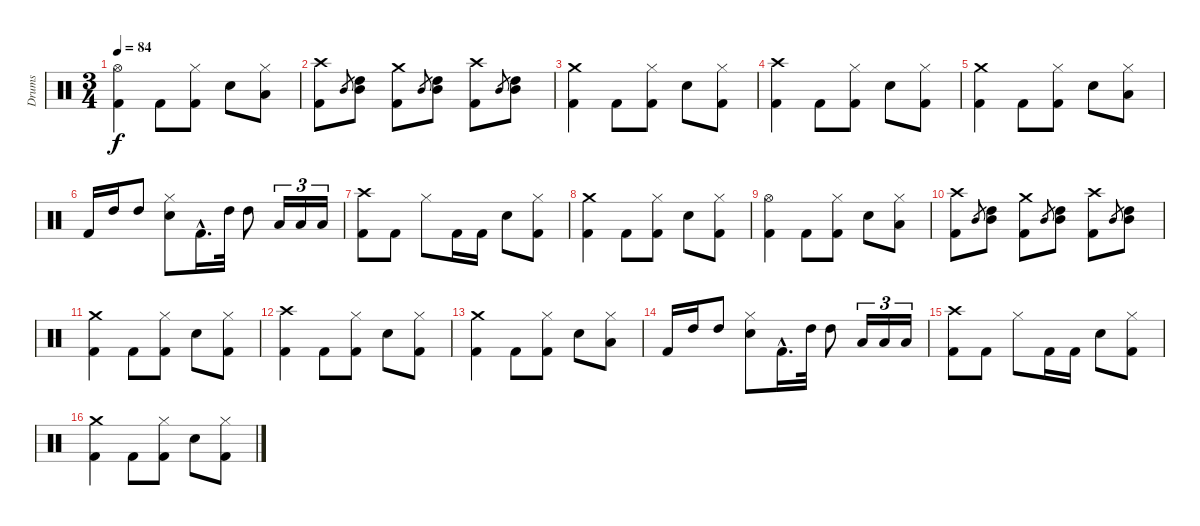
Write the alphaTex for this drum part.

\track ("Drums" "Drums") {instrument percussion}
\staff {score}
\articulation defaults
\ts (3 4)
\tempo 84
\clef neutral
\ks c
("Kick (hit) 2" "Hi-Hat (open)").4{dy f} "Kick (hit) 2".8 ("Kick (hit) 2" "Hi-Hat (closed)").8 "Snare (hit) 2".8 ("Hi-Hat (closed)" "Low Tom (hit)").8 |
("Kick (hit) 2" "Crash high (hit)").8 "Mid Tom (hit)".8{gr} ("Mid Tom (hit)" "High Tom (hit)").8 ("Kick (hit) 2" "Crash medium (hit)").8 "Mid Tom (hit)".8{gr} ("Mid Tom (hit)" "High Tom (hit)").8 ("Kick (hit) 2" "Crash high (hit)").8 "Mid Tom (hit)".8{gr} ("Mid Tom (hit)" "High Tom (hit)").8 |
("Kick (hit) 2" "Crash medium (hit)").4 "Kick (hit) 2".8 ("Kick (hit) 2" "Hi-Hat (closed)").8 "Snare (hit) 2".8 ("Kick (hit) 2" "Hi-Hat (closed)").8 |
("Kick (hit) 2" "Crash high (hit)").4 "Kick (hit) 2".8 ("Kick (hit) 2" "Hi-Hat (closed)").8 "Snare (hit) 2".8 ("Kick (hit) 2" "Hi-Hat (closed)").8 |
("Kick (hit) 2" "Crash medium (hit)").4 "Kick (hit) 2".8 ("Kick (hit) 2" "Hi-Hat (closed)").8 "Snare (hit) 2".8 ("Hi-Hat (closed)" "Low Tom (hit)").8 |
"Kick (hit) 2".16 "High Tom (hit)".16 "High Tom (hit)".8 ("Snare (hit) 2" "Hi-Hat (closed)").8 "Kick (hit) 2"{hac}.16{d} "High Tom (hit)".32 "High Tom (hit)".8 "Low Tom (hit)".16{tu (3 2)} "Low Tom (hit)".16{tu (3 2)} "Low Tom (hit)".16{tu (3 2)} |
("Kick (hit) 2" "Crash high (hit)").8 "Kick (hit) 2".8 "Hi-Hat (closed)".8 "Kick (hit) 2".16 "Kick (hit) 2".16 "Snare (hit) 2".8 ("Kick (hit) 2" "Hi-Hat (closed)").8 |
("Kick (hit) 2" "Crash medium (hit)").4 "Kick (hit) 2".8 ("Kick (hit) 2" "Hi-Hat (closed)").8 "Snare (hit) 2".8 ("Kick (hit) 2" "Hi-Hat (closed)").8 |
("Kick (hit) 2" "Hi-Hat (open)").4 "Kick (hit) 2".8 ("Kick (hit) 2" "Hi-Hat (closed)").8 "Snare (hit) 2".8 ("Hi-Hat (closed)" "Low Tom (hit)").8 |
("Kick (hit) 2" "Crash high (hit)").8 "Mid Tom (hit)".8{gr} ("Mid Tom (hit)" "High Tom (hit)").8 ("Kick (hit) 2" "Crash medium (hit)").8 "Mid Tom (hit)".8{gr} ("Mid Tom (hit)" "High Tom (hit)").8 ("Kick (hit) 2" "Crash high (hit)").8 "Mid Tom (hit)".8{gr} ("Mid Tom (hit)" "High Tom (hit)").8 |
("Kick (hit) 2" "Crash medium (hit)").4 "Kick (hit) 2".8 ("Kick (hit) 2" "Hi-Hat (closed)").8 "Snare (hit) 2".8 ("Kick (hit) 2" "Hi-Hat (closed)").8 |
("Kick (hit) 2" "Crash high (hit)").4 "Kick (hit) 2".8 ("Kick (hit) 2" "Hi-Hat (closed)").8 "Snare (hit) 2".8 ("Kick (hit) 2" "Hi-Hat (closed)").8 |
("Kick (hit) 2" "Crash medium (hit)").4 "Kick (hit) 2".8 ("Kick (hit) 2" "Hi-Hat (closed)").8 "Snare (hit) 2".8 ("Hi-Hat (closed)" "Low Tom (hit)").8 |
"Kick (hit) 2".16 "High Tom (hit)".16 "High Tom (hit)".8 ("Snare (hit) 2" "Hi-Hat (closed)").8 "Kick (hit) 2"{hac}.16{d} "High Tom (hit)".32 "High Tom (hit)".8 "Low Tom (hit)".16{tu (3 2)} "Low Tom (hit)".16{tu (3 2)} "Low Tom (hit)".16{tu (3 2)} |
("Kick (hit) 2" "Crash high (hit)").8 "Kick (hit) 2".8 "Hi-Hat (closed)".8 "Kick (hit) 2".16 "Kick (hit) 2".16 "Snare (hit) 2".8 ("Kick (hit) 2" "Hi-Hat (closed)").8 |
("Kick (hit) 2" "Crash medium (hit)").4 "Kick (hit) 2".8 ("Kick (hit) 2" "Hi-Hat (closed)").8 "Snare (hit) 2".8 ("Kick (hit) 2" "Hi-Hat (closed)").8
